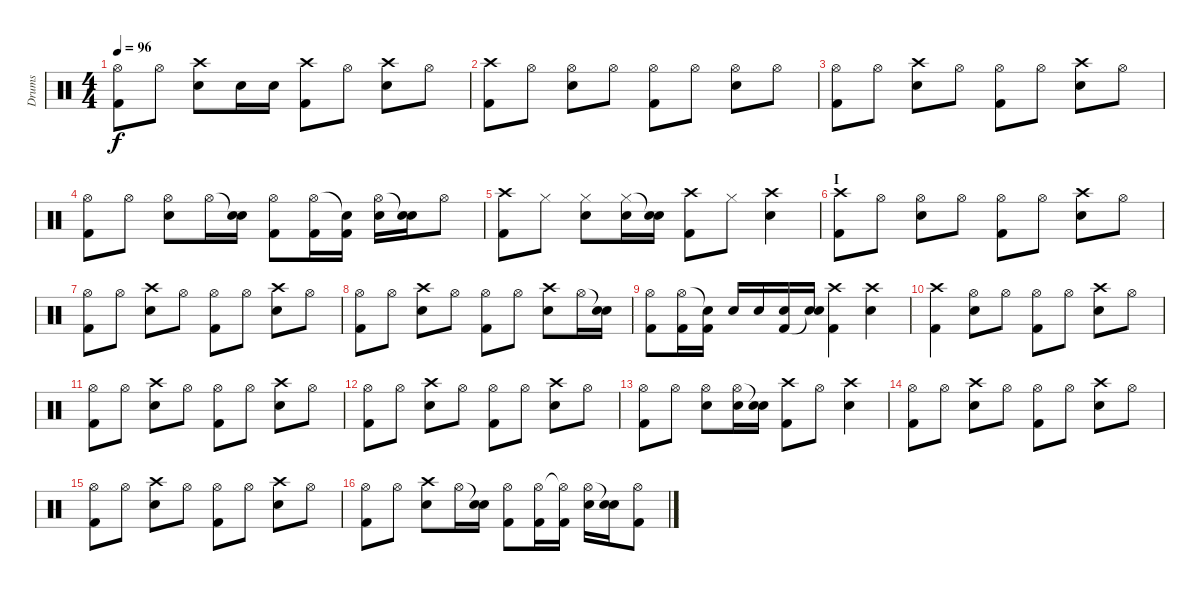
\track ("Drums" "Drums") {instrument percussion}
\staff {score}
\articulation defaults
\ts (4 4)
\tempo 96
\clef neutral
\ks c
("Hi-Hat (open)" "Kick (hit) 2").8{dy f} "Hi-Hat (open)".8 ("Crash high (hit)" "Snare (hit) 2").8 "Snare (hit) 2".16 "Snare (hit) 2".16 ("Crash high (hit)" "Kick (hit) 2").8 "Hi-Hat (open)".8 ("Crash high (hit)" "Snare (hit) 2").8 "Hi-Hat (open)".8 |
("Crash high (hit)" "Kick (hit) 2").8 "Hi-Hat (open)".8 ("Hi-Hat (open)" "Snare (hit) 2").8 "Hi-Hat (open)".8 ("Hi-Hat (open)" "Kick (hit) 2").8 "Hi-Hat (open)".8 ("Hi-Hat (open)" "Snare (hit) 2").8 "Hi-Hat (open)".8 |
("Hi-Hat (open)" "Kick (hit) 2").8 "Hi-Hat (open)".8 ("Crash high (hit)" "Snare (hit) 2").8 "Hi-Hat (open)".8 ("Hi-Hat (open)" "Kick (hit) 2").8 "Hi-Hat (open)".8 ("Crash high (hit)" "Snare (hit) 2").8 "Hi-Hat (open)".8 |
("Hi-Hat (open)" "Kick (hit) 2").8 "Hi-Hat (open)".8 ("Hi-Hat (open)" "Snare (hit) 2").8 "Hi-Hat (open)".16 ("Snare (hit)"{t} "Snare (hit) 2").16 ("Hi-Hat (open)" "Kick (hit) 2").8 ("Hi-Hat (open)" "Kick (hit) 2").16 ("Snare (hit)"{t} "Kick (hit) 2").16 ("Hi-Hat (open)" "Snare (hit) 2").16 ("Snare (hit)"{t} "Snare (hit) 2").16 "Hi-Hat (open)".8 |
("Crash high (hit)" "Kick (hit) 2").8 "Hi-Hat (closed)".8 ("Hi-Hat (closed)" "Snare (hit) 2").8 ("Hi-Hat (closed)" "Snare (hit) 2").16 ("Snare (hit)"{t} "Snare (hit) 2").16 ("Crash high (hit)" "Kick (hit) 2").8 "Hi-Hat (closed)".8 ("Crash high (hit)" "Snare (hit) 2").4 |
\section ("" "I")
("Crash high (hit)" "Kick (hit) 2").8 "Hi-Hat (open)".8 ("Hi-Hat (open)" "Snare (hit) 2").8 "Hi-Hat (open)".8 ("Hi-Hat (open)" "Kick (hit) 2").8 "Hi-Hat (open)".8 ("Crash high (hit)" "Snare (hit) 2").8 "Hi-Hat (open)".8 |
("Hi-Hat (open)" "Kick (hit) 2").8 "Hi-Hat (open)".8 ("Crash high (hit)" "Snare (hit) 2").8 "Hi-Hat (open)".8 ("Hi-Hat (open)" "Kick (hit) 2").8 "Hi-Hat (open)".8 ("Crash high (hit)" "Snare (hit) 2").8 "Hi-Hat (open)".8 |
("Hi-Hat (open)" "Kick (hit) 2").8 "Hi-Hat (open)".8 ("Crash high (hit)" "Snare (hit) 2").8 "Hi-Hat (open)".8 ("Hi-Hat (open)" "Kick (hit) 2").8 "Hi-Hat (open)".8 ("Crash high (hit)" "Snare (hit) 2").8 "Hi-Hat (open)".16 ("Snare (hit)"{t} "Snare (hit) 2").16 |
("Hi-Hat (open)" "Kick (hit) 2").8 ("Hi-Hat (open)" "Kick (hit) 2").16 ("Snare (hit)"{t} "Kick (hit) 2").16 "Snare (hit) 2".16 "Snare (hit) 2".16 ("Snare (hit) 2" "Kick (hit) 2").16 ("Snare (hit) 2" "Snare (hit)"{t}).16 ("Crash high (hit)" "Kick (hit) 2").4 ("Crash high (hit)" "Snare (hit) 2").4 |
("Crash high (hit)" "Kick (hit) 2").4 ("Hi-Hat (open)" "Snare (hit) 2").8 "Hi-Hat (open)".8 ("Hi-Hat (open)" "Kick (hit) 2").8 "Hi-Hat (open)".8 ("Crash high (hit)" "Snare (hit) 2").8 "Hi-Hat (open)".8 |
("Hi-Hat (open)" "Kick (hit) 2").8 "Hi-Hat (open)".8 ("Crash high (hit)" "Snare (hit) 2").8 "Hi-Hat (open)".8 ("Hi-Hat (open)" "Kick (hit) 2").8 "Hi-Hat (open)".8 ("Crash high (hit)" "Snare (hit) 2").8 "Hi-Hat (open)".8 |
("Hi-Hat (open)" "Kick (hit) 2").8 "Hi-Hat (open)".8 ("Crash high (hit)" "Snare (hit) 2").8 "Hi-Hat (open)".8 ("Hi-Hat (open)" "Kick (hit) 2").8 "Hi-Hat (open)".8 ("Crash high (hit)" "Snare (hit) 2").8 "Hi-Hat (open)".8 |
("Hi-Hat (open)" "Kick (hit) 2").8 "Hi-Hat (open)".8 ("Hi-Hat (open)" "Snare (hit) 2").8 ("Hi-Hat (open)" "Snare (hit) 2").16 ("Snare (hit)"{t} "Snare (hit) 2").16 ("Crash high (hit)" "Kick (hit) 2").8 "Hi-Hat (open)".8 ("Crash high (hit)" "Snare (hit) 2").4 |
("Hi-Hat (open)" "Kick (hit) 2").8 "Hi-Hat (open)".8 ("Crash high (hit)" "Snare (hit) 2").8 "Hi-Hat (open)".8 ("Hi-Hat (open)" "Kick (hit) 2").8 "Hi-Hat (open)".8 ("Crash high (hit)" "Snare (hit) 2").8 "Hi-Hat (open)".8 |
("Hi-Hat (open)" "Kick (hit) 2").8 "Hi-Hat (open)".8 ("Crash high (hit)" "Snare (hit) 2").8 "Hi-Hat (open)".8 ("Hi-Hat (open)" "Kick (hit) 2").8 "Hi-Hat (open)".8 ("Crash high (hit)" "Snare (hit) 2").8 "Hi-Hat (open)".8 |
("Hi-Hat (open)" "Kick (hit) 2").8 "Hi-Hat (open)".8 ("Crash high (hit)" "Snare (hit) 2").8 "Hi-Hat (open)".16 ("Snare (hit)"{t} "Snare (hit) 2").16 ("Hi-Hat (open)" "Kick (hit) 2").8 ("Hi-Hat (open)" "Kick (hit) 2").16 ("Hi-Hat (open)"{t} "Kick (hit) 2").16 ("Hi-Hat (open)" "Snare (hit) 2").16 ("Snare (hit)"{t} "Snare (hit) 2").16 ("Hi-Hat (open)" "Kick (hit) 2").8
